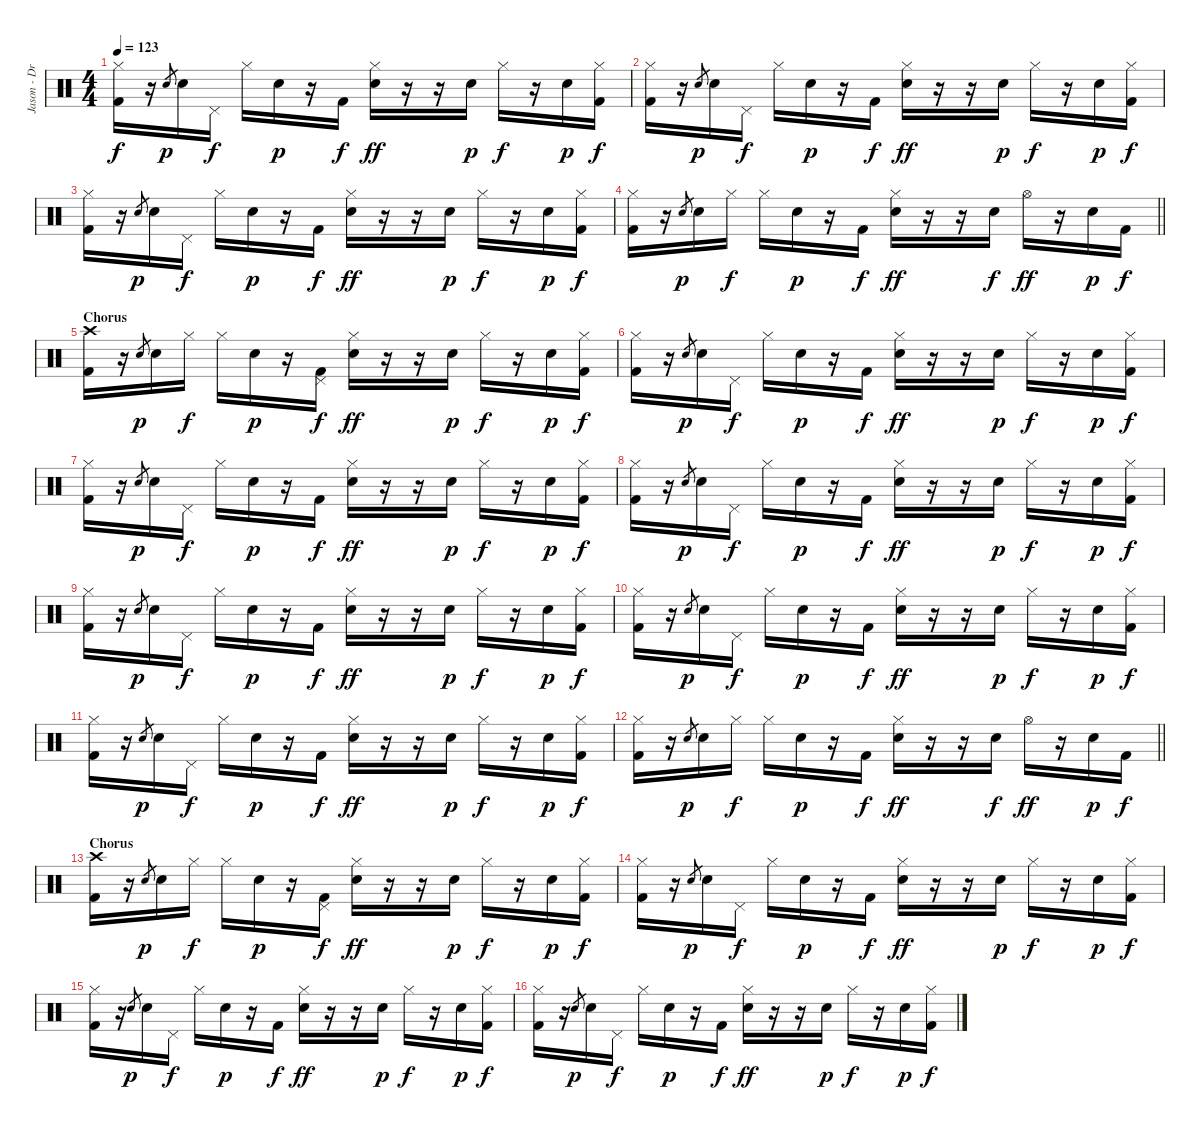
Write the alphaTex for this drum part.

\track ("Jason - Drums" "Jason - Dr") {instrument percussion}
\staff {score}
\articulation defaults
\ts (4 4)
\tempo 123
\clef neutral
\ks c
("Hi-Hat (closed)" "Kick (hit) 2").16{dy f} r.16 "Snare (hit) 2".8{gr dy p} "Snare (hit) 2".16 "Pedal Hi-Hat (hit)".16{dy f} "Hi-Hat (closed)".16 "Snare (hit) 2".16{dy p} r.16 "Kick (hit) 2".16{dy f} ("Hi-Hat (closed)" "Electric Snare (hit)").16{dy ff} r.16 r.16 "Snare (hit) 2".16{dy p} "Hi-Hat (closed)".16{dy f} r.16 "Snare (hit) 2".16{dy p} ("Hi-Hat (closed)" "Kick (hit) 2").16{dy f} |
("Hi-Hat (closed)" "Kick (hit) 2").16 r.16 "Snare (hit) 2".8{gr dy p} "Snare (hit) 2".16 "Pedal Hi-Hat (hit)".16{dy f} "Hi-Hat (closed)".16 "Snare (hit) 2".16{dy p} r.16 "Kick (hit) 2".16{dy f} ("Hi-Hat (closed)" "Electric Snare (hit)").16{dy ff} r.16 r.16 "Snare (hit) 2".16{dy p} "Hi-Hat (closed)".16{dy f} r.16 "Snare (hit) 2".16{dy p} ("Hi-Hat (closed)" "Kick (hit) 2").16{dy f} |
("Hi-Hat (closed)" "Kick (hit) 2").16 r.16 "Snare (hit) 2".8{gr dy p} "Snare (hit) 2".16 "Pedal Hi-Hat (hit)".16{dy f} "Hi-Hat (closed)".16 "Snare (hit) 2".16{dy p} r.16 "Kick (hit) 2".16{dy f} ("Hi-Hat (closed)" "Electric Snare (hit)").16{dy ff} r.16 r.16 "Snare (hit) 2".16{dy p} "Hi-Hat (closed)".16{dy f} r.16 "Snare (hit) 2".16{dy p} ("Hi-Hat (closed)" "Kick (hit) 2").16{dy f} |
\barLineRight lightlight
("Hi-Hat (closed)" "Kick (hit) 2").16 r.16 "Snare (hit) 2".8{gr dy p} "Snare (hit) 2".16 "Hi-Hat (closed)".16{dy f} "Hi-Hat (closed)".16 "Snare (hit) 2".16{dy p} r.16 "Kick (hit) 2".16{dy f} ("Hi-Hat (closed)" "Electric Snare (hit)").16{dy ff} r.16 r.16 "Electric Snare (hit)".16{dy f} "Hi-Hat (open)".16{dy ff} r.16 "Snare (hit) 2".16{dy p} "Kick (hit) 2".16{dy f} |
\section ("" "Chorus")
("Crash high (hit)" "Kick (hit) 2").16 r.16 "Snare (hit) 2".8{gr dy p} "Snare (hit) 2".16 "Hi-Hat (closed)".16{dy f} "Hi-Hat (closed)".16 "Snare (hit) 2".16{dy p} r.16 ("Pedal Hi-Hat (hit)" "Kick (hit) 2").16{dy f} ("Hi-Hat (closed)" "Electric Snare (hit)").16{dy ff} r.16 r.16 "Snare (hit) 2".16{dy p} "Hi-Hat (closed)".16{dy f} r.16 "Snare (hit) 2".16{dy p} ("Hi-Hat (closed)" "Kick (hit) 2").16{dy f} |
("Hi-Hat (closed)" "Kick (hit) 2").16 r.16 "Snare (hit) 2".8{gr dy p} "Snare (hit) 2".16 "Pedal Hi-Hat (hit)".16{dy f} "Hi-Hat (closed)".16 "Snare (hit) 2".16{dy p} r.16 "Kick (hit) 2".16{dy f} ("Hi-Hat (closed)" "Electric Snare (hit)").16{dy ff} r.16 r.16 "Snare (hit) 2".16{dy p} "Hi-Hat (closed)".16{dy f} r.16 "Snare (hit) 2".16{dy p} ("Hi-Hat (closed)" "Kick (hit) 2").16{dy f} |
("Hi-Hat (closed)" "Kick (hit) 2").16 r.16 "Snare (hit) 2".8{gr dy p} "Snare (hit) 2".16 "Pedal Hi-Hat (hit)".16{dy f} "Hi-Hat (closed)".16 "Snare (hit) 2".16{dy p} r.16 "Kick (hit) 2".16{dy f} ("Hi-Hat (closed)" "Electric Snare (hit)").16{dy ff} r.16 r.16 "Snare (hit) 2".16{dy p} "Hi-Hat (closed)".16{dy f} r.16 "Snare (hit) 2".16{dy p} ("Hi-Hat (closed)" "Kick (hit) 2").16{dy f} |
("Hi-Hat (closed)" "Kick (hit) 2").16 r.16 "Snare (hit) 2".8{gr dy p} "Snare (hit) 2".16 "Pedal Hi-Hat (hit)".16{dy f} "Hi-Hat (closed)".16 "Snare (hit) 2".16{dy p} r.16 "Kick (hit) 2".16{dy f} ("Hi-Hat (closed)" "Electric Snare (hit)").16{dy ff} r.16 r.16 "Snare (hit) 2".16{dy p} "Hi-Hat (closed)".16{dy f} r.16 "Snare (hit) 2".16{dy p} ("Hi-Hat (closed)" "Kick (hit) 2").16{dy f} |
("Hi-Hat (closed)" "Kick (hit) 2").16 r.16 "Snare (hit) 2".8{gr dy p} "Snare (hit) 2".16 "Pedal Hi-Hat (hit)".16{dy f} "Hi-Hat (closed)".16 "Snare (hit) 2".16{dy p} r.16 "Kick (hit) 2".16{dy f} ("Hi-Hat (closed)" "Electric Snare (hit)").16{dy ff} r.16 r.16 "Snare (hit) 2".16{dy p} "Hi-Hat (closed)".16{dy f} r.16 "Snare (hit) 2".16{dy p} ("Hi-Hat (closed)" "Kick (hit) 2").16{dy f} |
("Hi-Hat (closed)" "Kick (hit) 2").16 r.16 "Snare (hit) 2".8{gr dy p} "Snare (hit) 2".16 "Pedal Hi-Hat (hit)".16{dy f} "Hi-Hat (closed)".16 "Snare (hit) 2".16{dy p} r.16 "Kick (hit) 2".16{dy f} ("Hi-Hat (closed)" "Electric Snare (hit)").16{dy ff} r.16 r.16 "Snare (hit) 2".16{dy p} "Hi-Hat (closed)".16{dy f} r.16 "Snare (hit) 2".16{dy p} ("Hi-Hat (closed)" "Kick (hit) 2").16{dy f} |
("Hi-Hat (closed)" "Kick (hit) 2").16 r.16 "Snare (hit) 2".8{gr dy p} "Snare (hit) 2".16 "Pedal Hi-Hat (hit)".16{dy f} "Hi-Hat (closed)".16 "Snare (hit) 2".16{dy p} r.16 "Kick (hit) 2".16{dy f} ("Hi-Hat (closed)" "Electric Snare (hit)").16{dy ff} r.16 r.16 "Snare (hit) 2".16{dy p} "Hi-Hat (closed)".16{dy f} r.16 "Snare (hit) 2".16{dy p} ("Hi-Hat (closed)" "Kick (hit) 2").16{dy f} |
\barLineRight lightlight
("Hi-Hat (closed)" "Kick (hit) 2").16 r.16 "Snare (hit) 2".8{gr dy p} "Snare (hit) 2".16 "Hi-Hat (closed)".16{dy f} "Hi-Hat (closed)".16 "Snare (hit) 2".16{dy p} r.16 "Kick (hit) 2".16{dy f} ("Hi-Hat (closed)" "Electric Snare (hit)").16{dy ff} r.16 r.16 "Electric Snare (hit)".16{dy f} "Hi-Hat (open)".16{dy ff} r.16 "Snare (hit) 2".16{dy p} "Kick (hit) 2".16{dy f} |
\section ("" "Chorus")
("Crash high (hit)" "Kick (hit) 2").16 r.16 "Snare (hit) 2".8{gr dy p} "Snare (hit) 2".16 "Hi-Hat (closed)".16{dy f} "Hi-Hat (closed)".16 "Snare (hit) 2".16{dy p} r.16 ("Pedal Hi-Hat (hit)" "Kick (hit) 2").16{dy f} ("Hi-Hat (closed)" "Electric Snare (hit)").16{dy ff} r.16 r.16 "Snare (hit) 2".16{dy p} "Hi-Hat (closed)".16{dy f} r.16 "Snare (hit) 2".16{dy p} ("Hi-Hat (closed)" "Kick (hit) 2").16{dy f} |
("Hi-Hat (closed)" "Kick (hit) 2").16 r.16 "Snare (hit) 2".8{gr dy p} "Snare (hit) 2".16 "Pedal Hi-Hat (hit)".16{dy f} "Hi-Hat (closed)".16 "Snare (hit) 2".16{dy p} r.16 "Kick (hit) 2".16{dy f} ("Hi-Hat (closed)" "Electric Snare (hit)").16{dy ff} r.16 r.16 "Snare (hit) 2".16{dy p} "Hi-Hat (closed)".16{dy f} r.16 "Snare (hit) 2".16{dy p} ("Hi-Hat (closed)" "Kick (hit) 2").16{dy f} |
("Hi-Hat (closed)" "Kick (hit) 2").16 r.16 "Snare (hit) 2".8{gr dy p} "Snare (hit) 2".16 "Pedal Hi-Hat (hit)".16{dy f} "Hi-Hat (closed)".16 "Snare (hit) 2".16{dy p} r.16 "Kick (hit) 2".16{dy f} ("Hi-Hat (closed)" "Electric Snare (hit)").16{dy ff} r.16 r.16 "Snare (hit) 2".16{dy p} "Hi-Hat (closed)".16{dy f} r.16 "Snare (hit) 2".16{dy p} ("Hi-Hat (closed)" "Kick (hit) 2").16{dy f} |
("Hi-Hat (closed)" "Kick (hit) 2").16 r.16 "Snare (hit) 2".8{gr dy p} "Snare (hit) 2".16 "Pedal Hi-Hat (hit)".16{dy f} "Hi-Hat (closed)".16 "Snare (hit) 2".16{dy p} r.16 "Kick (hit) 2".16{dy f} ("Hi-Hat (closed)" "Electric Snare (hit)").16{dy ff} r.16 r.16 "Snare (hit) 2".16{dy p} "Hi-Hat (closed)".16{dy f} r.16 "Snare (hit) 2".16{dy p} ("Hi-Hat (closed)" "Kick (hit) 2").16{dy f}
